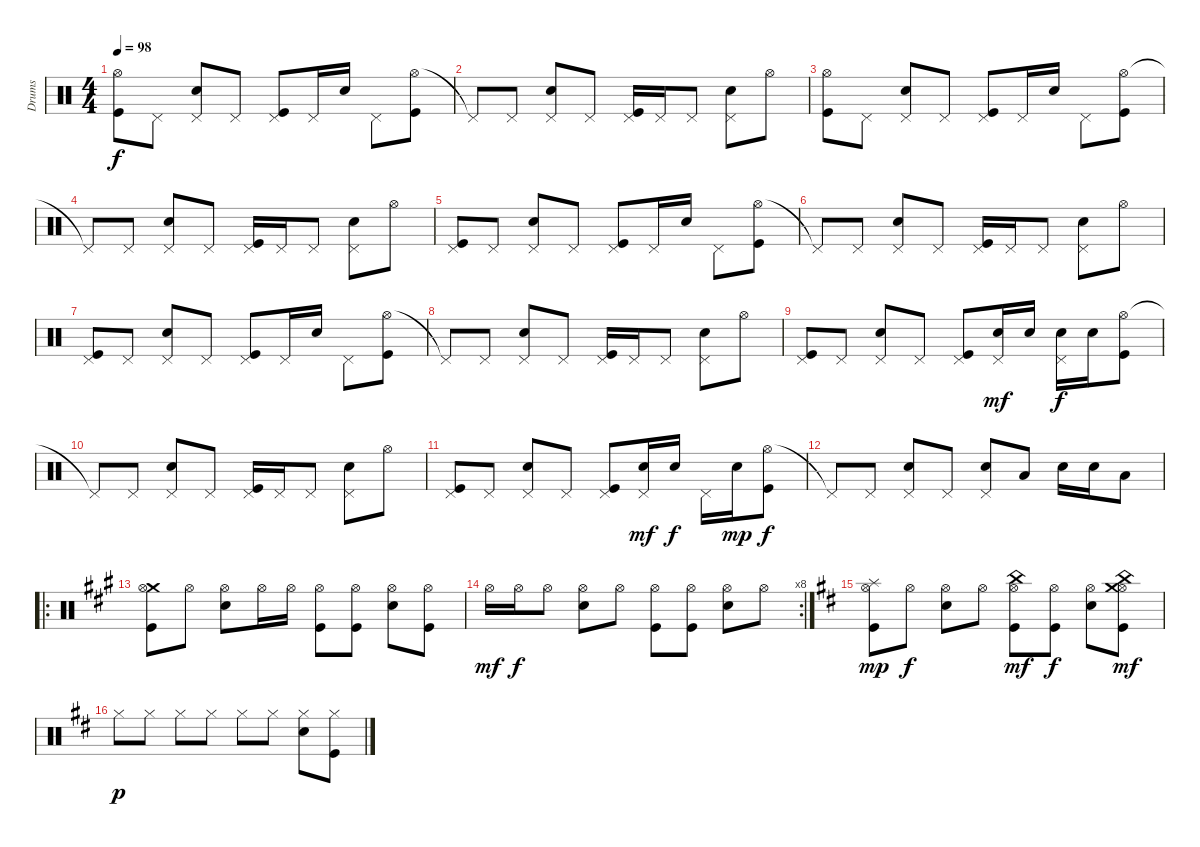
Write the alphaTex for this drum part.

\track ("Drums" "Drums") {instrument percussion}
\staff {score}
\articulation defaults
\ts (4 4)
\tempo 98
\clef neutral
\ks aminor
("Hi-Hat (open)" "Kick (hit)").8{dy f} "Pedal Hi-Hat (hit)".8 ("Pedal Hi-Hat (hit)" "Electric Snare (hit)").8 "Pedal Hi-Hat (hit)".8 ("Pedal Hi-Hat (hit)" "Kick (hit)").8 "Pedal Hi-Hat (hit)".16 "Electric Snare (hit)".16 "Pedal Hi-Hat (hit)".8 ("Hi-Hat (open)" "Kick (hit)").8 |
"Pedal Hi-Hat (hit)"{t}.8 "Pedal Hi-Hat (hit)".8 ("Pedal Hi-Hat (hit)" "Electric Snare (hit)").8 "Pedal Hi-Hat (hit)".8 ("Pedal Hi-Hat (hit)" "Kick (hit)").16 "Pedal Hi-Hat (hit)".16 "Pedal Hi-Hat (hit)".8 ("Pedal Hi-Hat (hit)" "Electric Snare (hit)").8 "Hi-Hat (open)".8 |
("Hi-Hat (open)" "Kick (hit)").8 "Pedal Hi-Hat (hit)".8 ("Pedal Hi-Hat (hit)" "Electric Snare (hit)").8 "Pedal Hi-Hat (hit)".8 ("Pedal Hi-Hat (hit)" "Kick (hit)").8 "Pedal Hi-Hat (hit)".16 "Electric Snare (hit)".16 "Pedal Hi-Hat (hit)".8 ("Hi-Hat (open)" "Kick (hit)").8 |
"Pedal Hi-Hat (hit)"{t}.8 "Pedal Hi-Hat (hit)".8 ("Pedal Hi-Hat (hit)" "Electric Snare (hit)").8 "Pedal Hi-Hat (hit)".8 ("Pedal Hi-Hat (hit)" "Kick (hit)").16 "Pedal Hi-Hat (hit)".16 "Pedal Hi-Hat (hit)".8 ("Pedal Hi-Hat (hit)" "Electric Snare (hit)").8 "Hi-Hat (open)".8 |
("Pedal Hi-Hat (hit)" "Kick (hit)").8 "Pedal Hi-Hat (hit)".8 ("Pedal Hi-Hat (hit)" "Electric Snare (hit)").8 "Pedal Hi-Hat (hit)".8 ("Pedal Hi-Hat (hit)" "Kick (hit)").8 "Pedal Hi-Hat (hit)".16 "Electric Snare (hit)".16 "Pedal Hi-Hat (hit)".8 ("Hi-Hat (open)" "Kick (hit)").8 |
"Pedal Hi-Hat (hit)"{t}.8 "Pedal Hi-Hat (hit)".8 ("Pedal Hi-Hat (hit)" "Electric Snare (hit)").8 "Pedal Hi-Hat (hit)".8 ("Pedal Hi-Hat (hit)" "Kick (hit)").16 "Pedal Hi-Hat (hit)".16 "Pedal Hi-Hat (hit)".8 ("Pedal Hi-Hat (hit)" "Electric Snare (hit)").8 "Hi-Hat (open)".8 |
("Pedal Hi-Hat (hit)" "Kick (hit)").8 "Pedal Hi-Hat (hit)".8 ("Pedal Hi-Hat (hit)" "Electric Snare (hit)").8 "Pedal Hi-Hat (hit)".8 ("Pedal Hi-Hat (hit)" "Kick (hit)").8 "Pedal Hi-Hat (hit)".16 "Electric Snare (hit)".16 "Pedal Hi-Hat (hit)".8 ("Hi-Hat (open)" "Kick (hit)").8 |
"Pedal Hi-Hat (hit)"{t}.8 "Pedal Hi-Hat (hit)".8 ("Pedal Hi-Hat (hit)" "Electric Snare (hit)").8 "Pedal Hi-Hat (hit)".8 ("Pedal Hi-Hat (hit)" "Kick (hit)").16 "Pedal Hi-Hat (hit)".16 "Pedal Hi-Hat (hit)".8 ("Pedal Hi-Hat (hit)" "Electric Snare (hit)").8 "Hi-Hat (open)".8 |
("Pedal Hi-Hat (hit)" "Kick (hit)").8 "Pedal Hi-Hat (hit)".8 ("Pedal Hi-Hat (hit)" "Electric Snare (hit)").8 "Pedal Hi-Hat (hit)".8 ("Pedal Hi-Hat (hit)" "Kick (hit)").8 ("Pedal Hi-Hat (hit)" "Electric Snare (hit)").16{dy mf} "Electric Snare (hit)".16 ("Pedal Hi-Hat (hit)" "Electric Snare (hit)").16{dy f} "Electric Snare (hit)".16 ("Hi-Hat (open)" "Kick (hit)").8 |
"Pedal Hi-Hat (hit)"{t}.8 "Pedal Hi-Hat (hit)".8 ("Pedal Hi-Hat (hit)" "Electric Snare (hit)").8 "Pedal Hi-Hat (hit)".8 ("Pedal Hi-Hat (hit)" "Kick (hit)").16 "Pedal Hi-Hat (hit)".16 "Pedal Hi-Hat (hit)".8 ("Pedal Hi-Hat (hit)" "Electric Snare (hit)").8 "Hi-Hat (open)".8 |
("Pedal Hi-Hat (hit)" "Kick (hit)").8 "Pedal Hi-Hat (hit)".8 ("Pedal Hi-Hat (hit)" "Electric Snare (hit)").8 "Pedal Hi-Hat (hit)".8 ("Pedal Hi-Hat (hit)" "Kick (hit)").8 ("Pedal Hi-Hat (hit)" "Electric Snare (hit)").16{dy mf} "Electric Snare (hit)".16{dy f} "Pedal Hi-Hat (hit)".16 "Electric Snare (hit)".16{dy mp} ("Hi-Hat (open)" "Kick (hit)").8{dy f} |
"Pedal Hi-Hat (hit)"{t}.8 "Pedal Hi-Hat (hit)".8 ("Pedal Hi-Hat (hit)" "Electric Snare (hit)").8 "Pedal Hi-Hat (hit)".8 ("Pedal Hi-Hat (hit)" "Electric Snare (hit)").8 "Low Tom (hit)".8 "Electric Snare (hit)".16 "Electric Snare (hit)".16 "Low Tom (hit)".8 |
\ro
\ks f#minor
("Crash medium (hit)" "Hi-Hat (open)" "Kick (hit)").8 "Hi-Hat (open)".8 ("Hi-Hat (open)" "Electric Snare (hit)").8 "Hi-Hat (open)".16 "Hi-Hat (open)".16 ("Hi-Hat (open)" "Kick (hit)").8 ("Hi-Hat (open)" "Kick (hit)").8 ("Hi-Hat (open)" "Electric Snare (hit)").8 ("Hi-Hat (open)" "Kick (hit)").8 |
\rc 8 "Hi-Hat (open)".16{dy mf} "Hi-Hat (open)".16{dy f} "Hi-Hat (open)".8
("Hi-Hat (open)" "Electric Snare (hit)").8 "Hi-Hat (open)".8 ("Hi-Hat (open)" "Kick (hit)").8 ("Hi-Hat (open)" "Kick (hit)").8 ("Hi-Hat (open)" "Electric Snare (hit)").8 "Hi-Hat (open)".8 |
\ks bminor
("Splash (hit)" "Hi-Hat (open)" "Kick (hit)").8{dy mp} "Hi-Hat (open)".8{dy f} ("Hi-Hat (open)" "Electric Snare (hit)").8 "Hi-Hat (open)".8 ("China (hit)" "Hi-Hat (open)" "Kick (hit)").8{dy mf} ("Hi-Hat (open)" "Kick (hit)").8{dy f} ("Hi-Hat (open)" "Electric Snare (hit)").8 ("China (hit)" "Hi-Hat (open)" "Crash medium (hit)" "Kick (hit)").8{dy mf} |
"Hi-Hat (closed)".8{dy p} "Hi-Hat (closed)".8 "Hi-Hat (closed)".8 "Hi-Hat (closed)".8 "Hi-Hat (closed)".8 "Hi-Hat (closed)".8 ("Hi-Hat (closed)" "Electric Snare (hit)").8 ("Hi-Hat (closed)" "Kick (hit)").8
